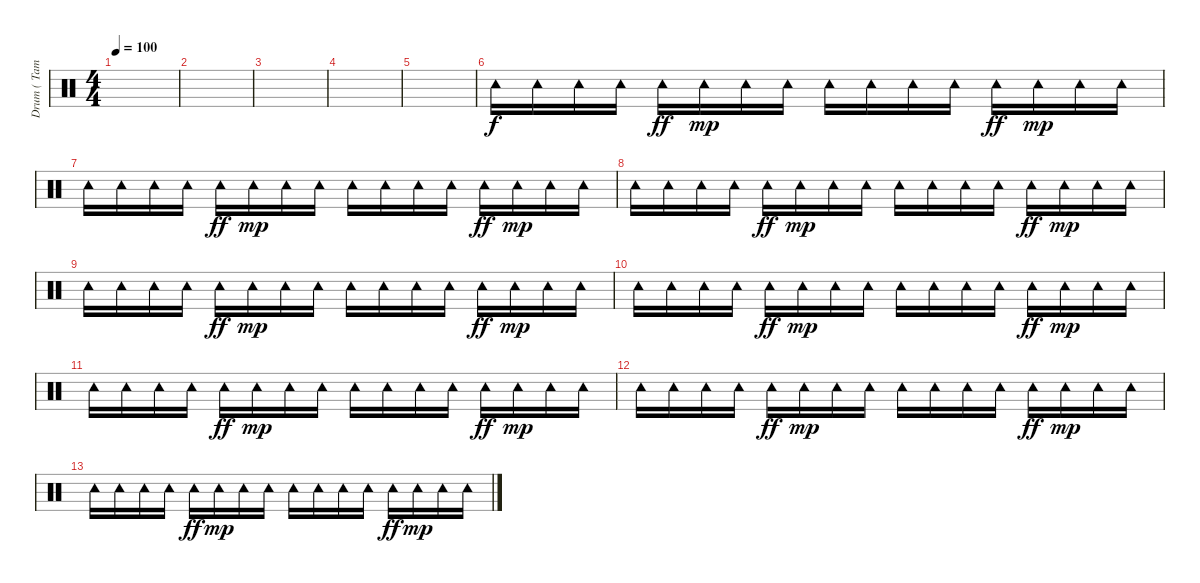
\track ("Drum ( Tambourine )" "Drum ( Tam") {instrument percussion}
\staff {score}
\articulation defaults
\ts (4 4)
\tempo 100
\clef neutral
\ks c
|
|
|
|
|
"Tambourine (hit)".16 "Tambourine (hit)".16 "Tambourine (hit)".16 "Tambourine (hit)".16 "Tambourine (hit)".16{dy ff} "Tambourine (hit)".16{dy mp} "Tambourine (hit)".16 "Tambourine (hit)".16 "Tambourine (hit)".16 "Tambourine (hit)".16 "Tambourine (hit)".16 "Tambourine (hit)".16 "Tambourine (hit)".16{dy ff} "Tambourine (hit)".16{dy mp} "Tambourine (hit)".16 "Tambourine (hit)".16 |
"Tambourine (hit)".16 "Tambourine (hit)".16 "Tambourine (hit)".16 "Tambourine (hit)".16 "Tambourine (hit)".16{dy ff} "Tambourine (hit)".16{dy mp} "Tambourine (hit)".16 "Tambourine (hit)".16 "Tambourine (hit)".16 "Tambourine (hit)".16 "Tambourine (hit)".16 "Tambourine (hit)".16 "Tambourine (hit)".16{dy ff} "Tambourine (hit)".16{dy mp} "Tambourine (hit)".16 "Tambourine (hit)".16 |
"Tambourine (hit)".16 "Tambourine (hit)".16 "Tambourine (hit)".16 "Tambourine (hit)".16 "Tambourine (hit)".16{dy ff} "Tambourine (hit)".16{dy mp} "Tambourine (hit)".16 "Tambourine (hit)".16 "Tambourine (hit)".16 "Tambourine (hit)".16 "Tambourine (hit)".16 "Tambourine (hit)".16 "Tambourine (hit)".16{dy ff} "Tambourine (hit)".16{dy mp} "Tambourine (hit)".16 "Tambourine (hit)".16 |
"Tambourine (hit)".16 "Tambourine (hit)".16 "Tambourine (hit)".16 "Tambourine (hit)".16 "Tambourine (hit)".16{dy ff} "Tambourine (hit)".16{dy mp} "Tambourine (hit)".16 "Tambourine (hit)".16 "Tambourine (hit)".16 "Tambourine (hit)".16 "Tambourine (hit)".16 "Tambourine (hit)".16 "Tambourine (hit)".16{dy ff} "Tambourine (hit)".16{dy mp} "Tambourine (hit)".16 "Tambourine (hit)".16 |
"Tambourine (hit)".16 "Tambourine (hit)".16 "Tambourine (hit)".16 "Tambourine (hit)".16 "Tambourine (hit)".16{dy ff} "Tambourine (hit)".16{dy mp} "Tambourine (hit)".16 "Tambourine (hit)".16 "Tambourine (hit)".16 "Tambourine (hit)".16 "Tambourine (hit)".16 "Tambourine (hit)".16 "Tambourine (hit)".16{dy ff} "Tambourine (hit)".16{dy mp} "Tambourine (hit)".16 "Tambourine (hit)".16 |
"Tambourine (hit)".16 "Tambourine (hit)".16 "Tambourine (hit)".16 "Tambourine (hit)".16 "Tambourine (hit)".16{dy ff} "Tambourine (hit)".16{dy mp} "Tambourine (hit)".16 "Tambourine (hit)".16 "Tambourine (hit)".16 "Tambourine (hit)".16 "Tambourine (hit)".16 "Tambourine (hit)".16 "Tambourine (hit)".16{dy ff} "Tambourine (hit)".16{dy mp} "Tambourine (hit)".16 "Tambourine (hit)".16 |
"Tambourine (hit)".16 "Tambourine (hit)".16 "Tambourine (hit)".16 "Tambourine (hit)".16 "Tambourine (hit)".16{dy ff} "Tambourine (hit)".16{dy mp} "Tambourine (hit)".16 "Tambourine (hit)".16 "Tambourine (hit)".16 "Tambourine (hit)".16 "Tambourine (hit)".16 "Tambourine (hit)".16 "Tambourine (hit)".16{dy ff} "Tambourine (hit)".16{dy mp} "Tambourine (hit)".16 "Tambourine (hit)".16 |
"Tambourine (hit)".16 "Tambourine (hit)".16 "Tambourine (hit)".16 "Tambourine (hit)".16 "Tambourine (hit)".16{dy ff} "Tambourine (hit)".16{dy mp} "Tambourine (hit)".16 "Tambourine (hit)".16 "Tambourine (hit)".16 "Tambourine (hit)".16 "Tambourine (hit)".16 "Tambourine (hit)".16 "Tambourine (hit)".16{dy ff} "Tambourine (hit)".16{dy mp} "Tambourine (hit)".16 "Tambourine (hit)".16
